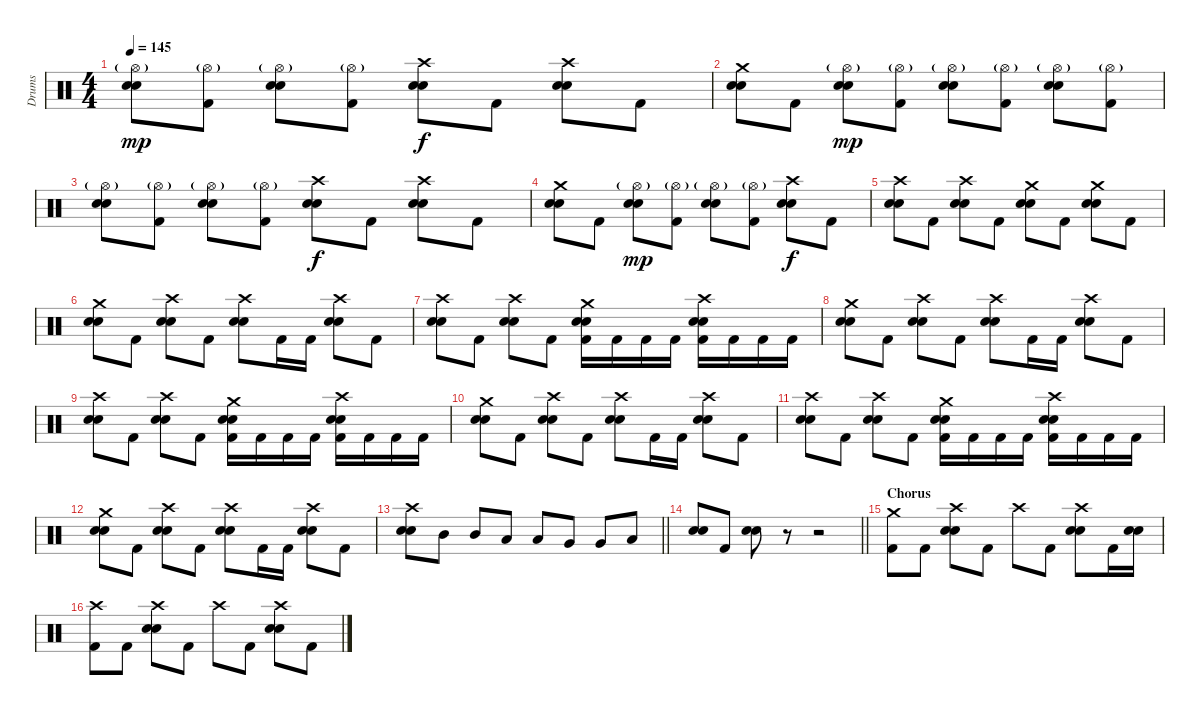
\track ("Drums" "Drums") {instrument percussion}
\staff {score}
\articulation defaults
\ts (4 4)
\tempo 145
\clef neutral
\ks c
("Hi-Hat (open)"{g} "Electric Snare (hit)" "Electric Snare (hit)").8{dy mp} ("Hi-Hat (open)"{g} "Kick (hit) 2").8 ("Hi-Hat (open)"{g} "Electric Snare (hit)" "Electric Snare (hit)").8 ("Hi-Hat (open)"{g} "Kick (hit) 2").8 ("Crash high (hit)" "Electric Snare (hit)" "Electric Snare (hit)").8{dy f} "Kick (hit) 2".8 ("Crash high (hit)" "Electric Snare (hit)" "Electric Snare (hit)").8 "Kick (hit) 2".8 |
("Crash medium (hit)" "Electric Snare (hit)" "Electric Snare (hit)").8 "Kick (hit) 2".8 ("Hi-Hat (open)"{g} "Electric Snare (hit)" "Electric Snare (hit)").8{dy mp} ("Hi-Hat (open)"{g} "Kick (hit) 2").8 ("Hi-Hat (open)"{g} "Electric Snare (hit)" "Electric Snare (hit)").8 ("Hi-Hat (open)"{g} "Kick (hit) 2").8 ("Hi-Hat (open)"{g} "Electric Snare (hit)" "Electric Snare (hit)").8 ("Hi-Hat (open)"{g} "Kick (hit) 2").8 |
("Hi-Hat (open)"{g} "Electric Snare (hit)" "Electric Snare (hit)").8 ("Hi-Hat (open)"{g} "Kick (hit) 2").8 ("Hi-Hat (open)"{g} "Electric Snare (hit)" "Electric Snare (hit)").8 ("Hi-Hat (open)"{g} "Kick (hit) 2").8 ("Crash high (hit)" "Electric Snare (hit)" "Electric Snare (hit)").8{dy f} "Kick (hit) 2".8 ("Crash high (hit)" "Electric Snare (hit)" "Electric Snare (hit)").8 "Kick (hit) 2".8 |
("Crash medium (hit)" "Electric Snare (hit)" "Electric Snare (hit)").8 "Kick (hit) 2".8 ("Hi-Hat (open)"{g} "Electric Snare (hit)" "Electric Snare (hit)").8{dy mp} ("Hi-Hat (open)"{g} "Kick (hit) 2").8 ("Hi-Hat (open)"{g} "Electric Snare (hit)" "Electric Snare (hit)").8 ("Hi-Hat (open)"{g} "Kick (hit) 2").8 ("Crash high (hit)" "Electric Snare (hit)" "Electric Snare (hit)").8{dy f} "Kick (hit) 2".8 |
("Crash high (hit)" "Electric Snare (hit)" "Electric Snare (hit)").8 "Kick (hit) 2".8 ("Crash high (hit)" "Electric Snare (hit)" "Electric Snare (hit)").8 "Kick (hit) 2".8 ("Crash medium (hit)" "Electric Snare (hit)" "Electric Snare (hit)").8 "Kick (hit) 2".8 ("Crash medium (hit)" "Electric Snare (hit)" "Electric Snare (hit)").8 "Kick (hit) 2".8 |
("Crash medium (hit)" "Electric Snare (hit)" "Electric Snare (hit)").8 "Kick (hit) 2".8 ("Crash high (hit)" "Electric Snare (hit)" "Electric Snare (hit)").8 "Kick (hit) 2".8 ("Crash high (hit)" "Electric Snare (hit)" "Electric Snare (hit)").8 "Kick (hit) 2".16 "Kick (hit) 2".16 ("Crash high (hit)" "Electric Snare (hit)" "Electric Snare (hit)").8 "Kick (hit) 2".8 |
("Crash high (hit)" "Electric Snare (hit)" "Electric Snare (hit)").8 "Kick (hit) 2".8 ("Crash high (hit)" "Electric Snare (hit)" "Electric Snare (hit)").8 "Kick (hit) 2".8 ("Crash medium (hit)" "Electric Snare (hit)" "Electric Snare (hit)" "Kick (hit) 2").16 "Kick (hit) 2".16 "Kick (hit) 2".16 "Kick (hit) 2".16 ("Crash high (hit)" "Electric Snare (hit)" "Electric Snare (hit)" "Kick (hit) 2").16 "Kick (hit) 2".16 "Kick (hit) 2".16 "Kick (hit) 2".16 |
("Crash medium (hit)" "Electric Snare (hit)" "Electric Snare (hit)").8 "Kick (hit) 2".8 ("Crash high (hit)" "Electric Snare (hit)" "Electric Snare (hit)").8 "Kick (hit) 2".8 ("Crash high (hit)" "Electric Snare (hit)" "Electric Snare (hit)").8 "Kick (hit) 2".16 "Kick (hit) 2".16 ("Crash high (hit)" "Electric Snare (hit)" "Electric Snare (hit)").8 "Kick (hit) 2".8 |
("Crash high (hit)" "Electric Snare (hit)" "Electric Snare (hit)").8 "Kick (hit) 2".8 ("Crash high (hit)" "Electric Snare (hit)" "Electric Snare (hit)").8 "Kick (hit) 2".8 ("Crash medium (hit)" "Electric Snare (hit)" "Electric Snare (hit)" "Kick (hit) 2").16 "Kick (hit) 2".16 "Kick (hit) 2".16 "Kick (hit) 2".16 ("Crash high (hit)" "Electric Snare (hit)" "Electric Snare (hit)" "Kick (hit) 2").16 "Kick (hit) 2".16 "Kick (hit) 2".16 "Kick (hit) 2".16 |
("Crash medium (hit)" "Electric Snare (hit)" "Electric Snare (hit)").8 "Kick (hit) 2".8 ("Crash high (hit)" "Electric Snare (hit)" "Electric Snare (hit)").8 "Kick (hit) 2".8 ("Crash high (hit)" "Electric Snare (hit)" "Electric Snare (hit)").8 "Kick (hit) 2".16 "Kick (hit) 2".16 ("Crash high (hit)" "Electric Snare (hit)" "Electric Snare (hit)").8 "Kick (hit) 2".8 |
("Crash high (hit)" "Electric Snare (hit)" "Electric Snare (hit)").8 "Kick (hit) 2".8 ("Crash high (hit)" "Electric Snare (hit)" "Electric Snare (hit)").8 "Kick (hit) 2".8 ("Crash medium (hit)" "Electric Snare (hit)" "Electric Snare (hit)" "Kick (hit) 2").16 "Kick (hit) 2".16 "Kick (hit) 2".16 "Kick (hit) 2".16 ("Crash high (hit)" "Electric Snare (hit)" "Electric Snare (hit)" "Kick (hit) 2").16 "Kick (hit) 2".16 "Kick (hit) 2".16 "Kick (hit) 2".16 |
("Crash medium (hit)" "Electric Snare (hit)" "Electric Snare (hit)").8 "Kick (hit) 2".8 ("Crash high (hit)" "Electric Snare (hit)" "Electric Snare (hit)").8 "Kick (hit) 2".8 ("Crash high (hit)" "Electric Snare (hit)" "Electric Snare (hit)").8 "Kick (hit) 2".16 "Kick (hit) 2".16 ("Crash high (hit)" "Electric Snare (hit)" "Electric Snare (hit)").8 "Kick (hit) 2".8 |
\barLineRight lightlight
("Crash high (hit)" "Electric Snare (hit)" "Electric Snare (hit)").8 "Mid Tom (hit)".8 "Mid Tom (hit)".8 "Low Tom (hit)".8 "Low Tom (hit)".8 "Very Low Tom (hit)".8 "Very Low Tom (hit)".8 "Low Floor Tom (hit)".8 |
\barLineRight lightlight
("Electric Snare (hit)" "Electric Snare (hit)").8 "Kick (hit) 2".8 ("Electric Snare (hit)" "Electric Snare (hit)").8 r.8 r.2 |
\section ("" "Chorus")
("Crash medium (hit)" "Kick (hit) 2").8 "Kick (hit) 2".8 ("Crash high (hit)" "Electric Snare (hit)" "Electric Snare (hit)").8 "Kick (hit) 2".8 "Crash high (hit)".8 "Kick (hit) 2".8 ("Crash high (hit)" "Electric Snare (hit)" "Electric Snare (hit)").8 "Kick (hit) 2".16 ("Electric Snare (hit)" "Electric Snare (hit)").16 |
("Crash high (hit)" "Kick (hit) 2").8 "Kick (hit) 2".8 ("Crash high (hit)" "Electric Snare (hit)" "Electric Snare (hit)").8 "Kick (hit) 2".8 "Crash high (hit)".8 "Kick (hit) 2".8 ("Crash high (hit)" "Electric Snare (hit)" "Electric Snare (hit)").8 "Kick (hit) 2".8
